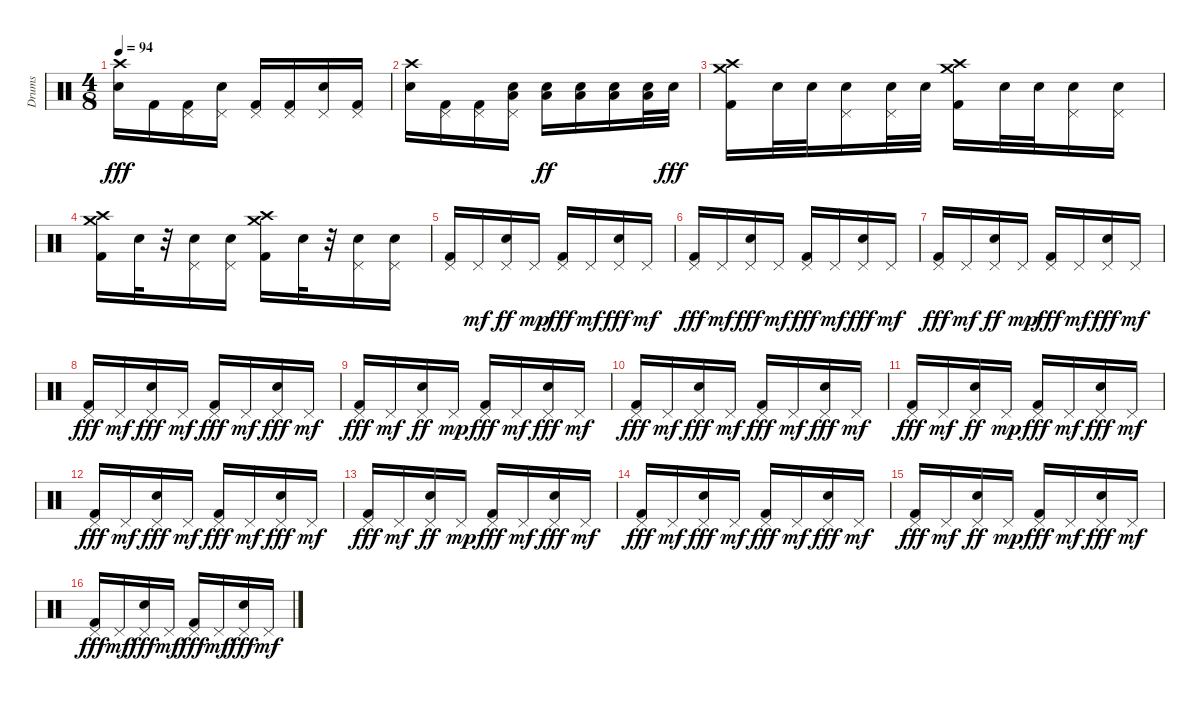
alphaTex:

\track ("Drums" "Drums") {instrument percussion}
\staff {score}
\articulation defaults
\ts (4 8)
\tempo 94
\clef neutral
\ks c
("Crash high (hit)" "Electric Snare (hit)").16{dy fff} "Kick (hit) 2".16 ("Pedal Hi-Hat (hit)" "Kick (hit) 2").16 ("Pedal Hi-Hat (hit)" "Electric Snare (hit)").16 ("Kick (hit) 2" "Pedal Hi-Hat (hit)").16 ("Pedal Hi-Hat (hit)" "Kick (hit) 2").16 ("Pedal Hi-Hat (hit)" "Electric Snare (hit)").16 ("Pedal Hi-Hat (hit)" "Kick (hit) 2").16 |
("Electric Snare (hit)" "Crash high (hit)").16 ("Pedal Hi-Hat (hit)" "Kick (hit) 2").16 ("Pedal Hi-Hat (hit)" "Kick (hit) 2").16 ("Low Floor Tom (hit)" "Pedal Hi-Hat (hit)" "Electric Snare (hit)").16 ("Electric Snare (hit)" "Low Floor Tom (hit)").16{dy ff} ("Electric Snare (hit)" "Low Floor Tom (hit)").16 ("Electric Snare (hit)" "Low Floor Tom (hit)").16 ("Electric Snare (hit)" "Low Floor Tom (hit)").32 "Electric Snare (hit)".32{dy fff} |
("Crash medium (hit)" "Crash high (hit)" "Kick (hit) 2").16 "Electric Snare (hit)".32 "Electric Snare (hit)".32 ("Pedal Hi-Hat (hit)" "Electric Snare (hit)").16 ("Pedal Hi-Hat (hit)" "Electric Snare (hit)").32 "Electric Snare (hit)".32 ("Crash medium (hit)" "Kick (hit) 2" "Crash high (hit)").16 "Electric Snare (hit)".32 "Electric Snare (hit)".32 ("Pedal Hi-Hat (hit)" "Electric Snare (hit)").16 ("Pedal Hi-Hat (hit)" "Electric Snare (hit)").16 |
("Crash medium (hit)" "Crash high (hit)" "Kick (hit) 2").16 "Electric Snare (hit)".32 r.32 ("Pedal Hi-Hat (hit)" "Electric Snare (hit)").16 ("Electric Snare (hit)" "Pedal Hi-Hat (hit)").16 ("Crash high (hit)" "Crash medium (hit)" "Kick (hit) 2").16 "Electric Snare (hit)".32 r.32 ("Electric Snare (hit)" "Pedal Hi-Hat (hit)").16 ("Pedal Hi-Hat (hit)" "Electric Snare (hit)").16 |
("Pedal Hi-Hat (hit)" "Kick (hit) 2").16 "Pedal Hi-Hat (hit)".16{dy mf} ("Electric Snare (hit)" "Pedal Hi-Hat (hit)").16{dy ff} "Pedal Hi-Hat (hit)".16{dy mp} ("Pedal Hi-Hat (hit)" "Kick (hit) 2").16{dy fff} "Pedal Hi-Hat (hit)".16{dy mf} ("Pedal Hi-Hat (hit)" "Electric Snare (hit)").16{dy fff} "Pedal Hi-Hat (hit)".16{dy mf} |
("Pedal Hi-Hat (hit)" "Kick (hit) 2").16{dy fff} "Pedal Hi-Hat (hit)".16{dy mf} ("Pedal Hi-Hat (hit)" "Electric Snare (hit)").16{dy fff} "Pedal Hi-Hat (hit)".16{dy mf} ("Pedal Hi-Hat (hit)" "Kick (hit) 2").16{dy fff} "Pedal Hi-Hat (hit)".16{dy mf} ("Pedal Hi-Hat (hit)" "Electric Snare (hit)").16{dy fff} "Pedal Hi-Hat (hit)".16{dy mf} |
("Pedal Hi-Hat (hit)" "Kick (hit) 2").16{dy fff} "Pedal Hi-Hat (hit)".16{dy mf} ("Electric Snare (hit)" "Pedal Hi-Hat (hit)").16{dy ff} "Pedal Hi-Hat (hit)".16{dy mp} ("Pedal Hi-Hat (hit)" "Kick (hit) 2").16{dy fff} "Pedal Hi-Hat (hit)".16{dy mf} ("Pedal Hi-Hat (hit)" "Electric Snare (hit)").16{dy fff} "Pedal Hi-Hat (hit)".16{dy mf} |
("Pedal Hi-Hat (hit)" "Kick (hit) 2").16{dy fff} "Pedal Hi-Hat (hit)".16{dy mf} ("Pedal Hi-Hat (hit)" "Electric Snare (hit)").16{dy fff} "Pedal Hi-Hat (hit)".16{dy mf} ("Pedal Hi-Hat (hit)" "Kick (hit) 2").16{dy fff} "Pedal Hi-Hat (hit)".16{dy mf} ("Pedal Hi-Hat (hit)" "Electric Snare (hit)").16{dy fff} "Pedal Hi-Hat (hit)".16{dy mf} |
("Pedal Hi-Hat (hit)" "Kick (hit) 2").16{dy fff} "Pedal Hi-Hat (hit)".16{dy mf} ("Electric Snare (hit)" "Pedal Hi-Hat (hit)").16{dy ff} "Pedal Hi-Hat (hit)".16{dy mp} ("Pedal Hi-Hat (hit)" "Kick (hit) 2").16{dy fff} "Pedal Hi-Hat (hit)".16{dy mf} ("Pedal Hi-Hat (hit)" "Electric Snare (hit)").16{dy fff} "Pedal Hi-Hat (hit)".16{dy mf} |
("Pedal Hi-Hat (hit)" "Kick (hit) 2").16{dy fff} "Pedal Hi-Hat (hit)".16{dy mf} ("Pedal Hi-Hat (hit)" "Electric Snare (hit)").16{dy fff} "Pedal Hi-Hat (hit)".16{dy mf} ("Pedal Hi-Hat (hit)" "Kick (hit) 2").16{dy fff} "Pedal Hi-Hat (hit)".16{dy mf} ("Pedal Hi-Hat (hit)" "Electric Snare (hit)").16{dy fff} "Pedal Hi-Hat (hit)".16{dy mf} |
("Pedal Hi-Hat (hit)" "Kick (hit) 2").16{dy fff} "Pedal Hi-Hat (hit)".16{dy mf} ("Electric Snare (hit)" "Pedal Hi-Hat (hit)").16{dy ff} "Pedal Hi-Hat (hit)".16{dy mp} ("Pedal Hi-Hat (hit)" "Kick (hit) 2").16{dy fff} "Pedal Hi-Hat (hit)".16{dy mf} ("Pedal Hi-Hat (hit)" "Electric Snare (hit)").16{dy fff} "Pedal Hi-Hat (hit)".16{dy mf} |
("Pedal Hi-Hat (hit)" "Kick (hit) 2").16{dy fff} "Pedal Hi-Hat (hit)".16{dy mf} ("Pedal Hi-Hat (hit)" "Electric Snare (hit)").16{dy fff} "Pedal Hi-Hat (hit)".16{dy mf} ("Pedal Hi-Hat (hit)" "Kick (hit) 2").16{dy fff} "Pedal Hi-Hat (hit)".16{dy mf} ("Pedal Hi-Hat (hit)" "Electric Snare (hit)").16{dy fff} "Pedal Hi-Hat (hit)".16{dy mf} |
("Pedal Hi-Hat (hit)" "Kick (hit) 2").16{dy fff} "Pedal Hi-Hat (hit)".16{dy mf} ("Electric Snare (hit)" "Pedal Hi-Hat (hit)").16{dy ff} "Pedal Hi-Hat (hit)".16{dy mp} ("Pedal Hi-Hat (hit)" "Kick (hit) 2").16{dy fff} "Pedal Hi-Hat (hit)".16{dy mf} ("Pedal Hi-Hat (hit)" "Electric Snare (hit)").16{dy fff} "Pedal Hi-Hat (hit)".16{dy mf} |
("Pedal Hi-Hat (hit)" "Kick (hit) 2").16{dy fff} "Pedal Hi-Hat (hit)".16{dy mf} ("Pedal Hi-Hat (hit)" "Electric Snare (hit)").16{dy fff} "Pedal Hi-Hat (hit)".16{dy mf} ("Pedal Hi-Hat (hit)" "Kick (hit) 2").16{dy fff} "Pedal Hi-Hat (hit)".16{dy mf} ("Pedal Hi-Hat (hit)" "Electric Snare (hit)").16{dy fff} "Pedal Hi-Hat (hit)".16{dy mf} |
("Pedal Hi-Hat (hit)" "Kick (hit) 2").16{dy fff} "Pedal Hi-Hat (hit)".16{dy mf} ("Electric Snare (hit)" "Pedal Hi-Hat (hit)").16{dy ff} "Pedal Hi-Hat (hit)".16{dy mp} ("Pedal Hi-Hat (hit)" "Kick (hit) 2").16{dy fff} "Pedal Hi-Hat (hit)".16{dy mf} ("Pedal Hi-Hat (hit)" "Electric Snare (hit)").16{dy fff} "Pedal Hi-Hat (hit)".16{dy mf} |
("Pedal Hi-Hat (hit)" "Kick (hit) 2").16{dy fff} "Pedal Hi-Hat (hit)".16{dy mf} ("Pedal Hi-Hat (hit)" "Electric Snare (hit)").16{dy fff} "Pedal Hi-Hat (hit)".16{dy mf} ("Pedal Hi-Hat (hit)" "Kick (hit) 2").16{dy fff} "Pedal Hi-Hat (hit)".16{dy mf} ("Pedal Hi-Hat (hit)" "Electric Snare (hit)").16{dy fff} "Pedal Hi-Hat (hit)".16{dy mf}
